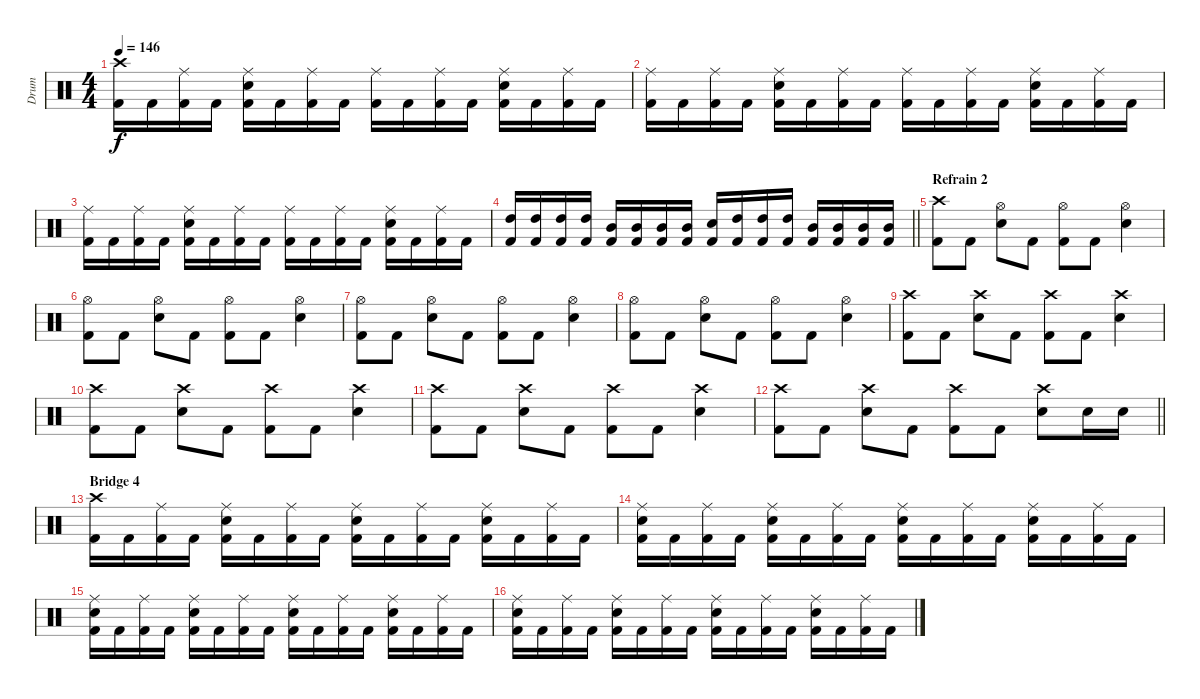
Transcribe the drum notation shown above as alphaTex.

\track ("Drum" "Drum") {instrument percussion}
\staff {score}
\articulation defaults
\ts (4 4)
\tempo 146
\clef neutral
\ks c
("Crash high (hit)" "Kick (hit) 2").16{dy f} "Kick (hit) 2".16 ("Ride (middle)" "Kick (hit) 2").16 "Kick (hit) 2".16 ("Ride (middle)" "Electric Snare (hit)" "Kick (hit) 2").16 "Kick (hit) 2".16 ("Ride (middle)" "Kick (hit) 2").16 "Kick (hit) 2".16 ("Ride (middle)" "Kick (hit) 2").16 "Kick (hit) 2".16 ("Ride (middle)" "Kick (hit) 2").16 "Kick (hit) 2".16 ("Ride (middle)" "Electric Snare (hit)" "Kick (hit) 2").16 "Kick (hit) 2".16 ("Ride (middle)" "Kick (hit) 2").16 "Kick (hit) 2".16 |
("Ride (middle)" "Kick (hit) 2").16 "Kick (hit) 2".16 ("Ride (middle)" "Kick (hit) 2").16 "Kick (hit) 2".16 ("Ride (middle)" "Electric Snare (hit)" "Kick (hit) 2").16 "Kick (hit) 2".16 ("Ride (middle)" "Kick (hit) 2").16 "Kick (hit) 2".16 ("Ride (middle)" "Kick (hit) 2").16 "Kick (hit) 2".16 ("Ride (middle)" "Kick (hit) 2").16 "Kick (hit) 2".16 ("Ride (middle)" "Electric Snare (hit)" "Kick (hit) 2").16 "Kick (hit) 2".16 ("Ride (middle)" "Kick (hit) 2").16 "Kick (hit) 2".16 |
("Ride (middle)" "Kick (hit) 2").16 "Kick (hit) 2".16 ("Ride (middle)" "Kick (hit) 2").16 "Kick (hit) 2".16 ("Ride (middle)" "Electric Snare (hit)" "Kick (hit) 2").16 "Kick (hit) 2".16 ("Ride (middle)" "Kick (hit) 2").16 "Kick (hit) 2".16 ("Ride (middle)" "Kick (hit) 2").16 "Kick (hit) 2".16 ("Ride (middle)" "Kick (hit) 2").16 "Kick (hit) 2".16 ("Ride (middle)" "Electric Snare (hit)" "Kick (hit) 2").16 "Kick (hit) 2".16 ("Ride (middle)" "Kick (hit) 2").16 "Kick (hit) 2".16 |
\barLineRight lightlight
("High Tom (hit)" "Kick (hit) 2").16 ("High Tom (hit)" "Kick (hit) 2").16 ("High Tom (hit)" "Kick (hit) 2").16 ("High Tom (hit)" "Kick (hit) 2").16 ("Mid Tom (hit)" "Kick (hit) 2").16 ("Mid Tom (hit)" "Kick (hit) 2").16 ("Mid Tom (hit)" "Kick (hit) 2").16 ("Mid Tom (hit)" "Kick (hit) 2").16 ("Electric Snare (hit)" "Kick (hit) 2").16 ("High Tom (hit)" "Kick (hit) 2").16 ("High Tom (hit)" "Kick (hit) 2").16 ("High Tom (hit)" "Kick (hit) 2").16 ("Mid Tom (hit)" "Kick (hit) 2").16 ("Mid Tom (hit)" "Kick (hit) 2").16 ("Mid Tom (hit)" "Kick (hit) 2").16 ("Mid Tom (hit)" "Kick (hit) 2").16 |
\section ("" "Refrain 2")
("Crash high (hit)" "Kick (hit) 2").8 "Kick (hit) 2".8 ("Hi-Hat (open)" "Electric Snare (hit)").8 "Kick (hit) 2".8 ("Hi-Hat (open)" "Kick (hit) 2").8 "Kick (hit) 2".8 ("Hi-Hat (open)" "Electric Snare (hit)").4 |
("Hi-Hat (open)" "Kick (hit) 2").8 "Kick (hit) 2".8 ("Hi-Hat (open)" "Electric Snare (hit)").8 "Kick (hit) 2".8 ("Hi-Hat (open)" "Kick (hit) 2").8 "Kick (hit) 2".8 ("Hi-Hat (open)" "Electric Snare (hit)").4 |
("Hi-Hat (open)" "Kick (hit) 2").8 "Kick (hit) 2".8 ("Hi-Hat (open)" "Electric Snare (hit)").8 "Kick (hit) 2".8 ("Hi-Hat (open)" "Kick (hit) 2").8 "Kick (hit) 2".8 ("Hi-Hat (open)" "Electric Snare (hit)").4 |
("Hi-Hat (open)" "Kick (hit) 2").8 "Kick (hit) 2".8 ("Hi-Hat (open)" "Electric Snare (hit)").8 "Kick (hit) 2".8 ("Hi-Hat (open)" "Kick (hit) 2").8 "Kick (hit) 2".8 ("Hi-Hat (open)" "Electric Snare (hit)").4 |
("Crash high (hit)" "Kick (hit) 2").8 "Kick (hit) 2".8 ("Crash high (hit)" "Electric Snare (hit)").8 "Kick (hit) 2".8 ("Crash high (hit)" "Kick (hit) 2").8 "Kick (hit) 2".8 ("Crash high (hit)" "Electric Snare (hit)").4 |
("Crash high (hit)" "Kick (hit) 2").8 "Kick (hit) 2".8 ("Crash high (hit)" "Electric Snare (hit)").8 "Kick (hit) 2".8 ("Crash high (hit)" "Kick (hit) 2").8 "Kick (hit) 2".8 ("Crash high (hit)" "Electric Snare (hit)").4 |
("Crash high (hit)" "Kick (hit) 2").8 "Kick (hit) 2".8 ("Crash high (hit)" "Electric Snare (hit)").8 "Kick (hit) 2".8 ("Crash high (hit)" "Kick (hit) 2").8 "Kick (hit) 2".8 ("Crash high (hit)" "Electric Snare (hit)").4 |
\barLineRight lightlight
("Crash high (hit)" "Kick (hit) 2").8 "Kick (hit) 2".8 ("Crash high (hit)" "Electric Snare (hit)").8 "Kick (hit) 2".8 ("Crash high (hit)" "Kick (hit) 2").8 "Kick (hit) 2".8 ("Crash high (hit)" "Electric Snare (hit)").8 "Electric Snare (hit)".16 "Electric Snare (hit)".16 |
\section ("" "Bridge 4")
("Crash high (hit)" "Kick (hit) 2").16 "Kick (hit) 2".16 ("Ride (middle)" "Kick (hit) 2").16 "Kick (hit) 2".16 ("Ride (middle)" "Electric Snare (hit)" "Kick (hit) 2").16 "Kick (hit) 2".16 ("Ride (middle)" "Kick (hit) 2").16 "Kick (hit) 2".16 ("Ride (middle)" "Electric Snare (hit)" "Kick (hit) 2").16 "Kick (hit) 2".16 ("Ride (middle)" "Kick (hit) 2").16 "Kick (hit) 2".16 ("Ride (middle)" "Electric Snare (hit)" "Kick (hit) 2").16 "Kick (hit) 2".16 ("Ride (middle)" "Kick (hit) 2").16 "Kick (hit) 2".16 |
("Ride (middle)" "Electric Snare (hit)" "Kick (hit) 2").16 "Kick (hit) 2".16 ("Ride (middle)" "Kick (hit) 2").16 "Kick (hit) 2".16 ("Ride (middle)" "Electric Snare (hit)" "Kick (hit) 2").16 "Kick (hit) 2".16 ("Ride (middle)" "Kick (hit) 2").16 "Kick (hit) 2".16 ("Ride (middle)" "Electric Snare (hit)" "Kick (hit) 2").16 "Kick (hit) 2".16 ("Ride (middle)" "Kick (hit) 2").16 "Kick (hit) 2".16 ("Ride (middle)" "Electric Snare (hit)" "Kick (hit) 2").16 "Kick (hit) 2".16 ("Ride (middle)" "Kick (hit) 2").16 "Kick (hit) 2".16 |
("Ride (middle)" "Electric Snare (hit)" "Kick (hit) 2").16 "Kick (hit) 2".16 ("Ride (middle)" "Kick (hit) 2").16 "Kick (hit) 2".16 ("Ride (middle)" "Electric Snare (hit)" "Kick (hit) 2").16 "Kick (hit) 2".16 ("Ride (middle)" "Kick (hit) 2").16 "Kick (hit) 2".16 ("Ride (middle)" "Electric Snare (hit)" "Kick (hit) 2").16 "Kick (hit) 2".16 ("Ride (middle)" "Kick (hit) 2").16 "Kick (hit) 2".16 ("Ride (middle)" "Electric Snare (hit)" "Kick (hit) 2").16 "Kick (hit) 2".16 ("Ride (middle)" "Kick (hit) 2").16 "Kick (hit) 2".16 |
("Ride (middle)" "Electric Snare (hit)" "Kick (hit) 2").16 "Kick (hit) 2".16 ("Ride (middle)" "Kick (hit) 2").16 "Kick (hit) 2".16 ("Ride (middle)" "Electric Snare (hit)" "Kick (hit) 2").16 "Kick (hit) 2".16 ("Ride (middle)" "Kick (hit) 2").16 "Kick (hit) 2".16 ("Ride (middle)" "Electric Snare (hit)" "Kick (hit) 2").16 "Kick (hit) 2".16 ("Ride (middle)" "Kick (hit) 2").16 "Kick (hit) 2".16 ("Ride (middle)" "Electric Snare (hit)" "Kick (hit) 2").16 "Kick (hit) 2".16 ("Ride (middle)" "Kick (hit) 2").16 "Kick (hit) 2".16
